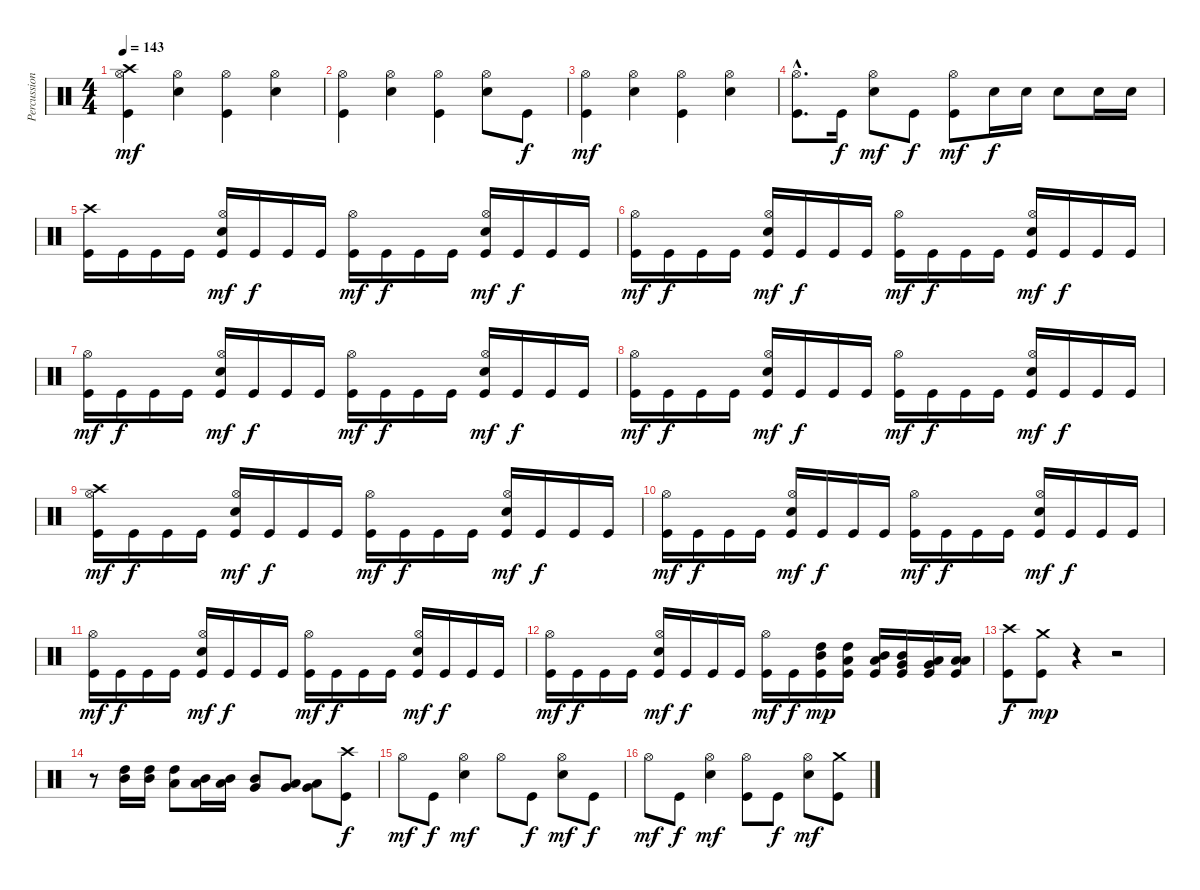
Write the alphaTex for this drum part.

\track ("Percussions" "Percussion") {instrument percussion}
\staff {score}
\articulation defaults
\ts (4 4)
\tempo 143
\clef neutral
\ks c
("Kick (hit)" "Hi-Hat (open)" "Crash high (hit)").4{dy mf} ("Electric Snare (hit)" "Hi-Hat (open)").4 ("Kick (hit)" "Hi-Hat (open)").4 ("Electric Snare (hit)" "Hi-Hat (open)").4 |
("Kick (hit)" "Hi-Hat (open)").4 ("Electric Snare (hit)" "Hi-Hat (open)").4 ("Kick (hit)" "Hi-Hat (open)").4 ("Electric Snare (hit)" "Hi-Hat (open)").8 "Kick (hit)".8{dy f} |
("Kick (hit)" "Hi-Hat (open)").4{dy mf} ("Electric Snare (hit)" "Hi-Hat (open)").4 ("Kick (hit)" "Hi-Hat (open)").4 ("Electric Snare (hit)" "Hi-Hat (open)").4 |
("Kick (hit)"{hac} "Hi-Hat (open)"{hac}).8{d} "Kick (hit)".16{dy f} ("Electric Snare (hit)" "Hi-Hat (open)").8{dy mf} "Kick (hit)".8{dy f} ("Kick (hit)" "Hi-Hat (open)").8{dy mf} "Electric Snare (hit)".16{dy f} "Electric Snare (hit)".16 "Electric Snare (hit)".8 "Electric Snare (hit)".16 "Electric Snare (hit)".16 |
("Kick (hit)" "Crash high (hit)").16 "Kick (hit)".16 "Kick (hit)".16 "Kick (hit)".16 ("Kick (hit)" "Electric Snare (hit)" "Hi-Hat (open)").16{dy mf} "Kick (hit)".16{dy f} "Kick (hit)".16 "Kick (hit)".16 ("Kick (hit)" "Hi-Hat (open)").16{dy mf} "Kick (hit)".16{dy f} "Kick (hit)".16 "Kick (hit)".16 ("Kick (hit)" "Electric Snare (hit)" "Hi-Hat (open)").16{dy mf} "Kick (hit)".16{dy f} "Kick (hit)".16 "Kick (hit)".16 |
("Kick (hit)" "Hi-Hat (open)").16{dy mf} "Kick (hit)".16{dy f} "Kick (hit)".16 "Kick (hit)".16 ("Kick (hit)" "Electric Snare (hit)" "Hi-Hat (open)").16{dy mf} "Kick (hit)".16{dy f} "Kick (hit)".16 "Kick (hit)".16 ("Kick (hit)" "Hi-Hat (open)").16{dy mf} "Kick (hit)".16{dy f} "Kick (hit)".16 "Kick (hit)".16 ("Kick (hit)" "Electric Snare (hit)" "Hi-Hat (open)").16{dy mf} "Kick (hit)".16{dy f} "Kick (hit)".16 "Kick (hit)".16 |
("Kick (hit)" "Hi-Hat (open)").16{dy mf} "Kick (hit)".16{dy f} "Kick (hit)".16 "Kick (hit)".16 ("Kick (hit)" "Electric Snare (hit)" "Hi-Hat (open)").16{dy mf} "Kick (hit)".16{dy f} "Kick (hit)".16 "Kick (hit)".16 ("Kick (hit)" "Hi-Hat (open)").16{dy mf} "Kick (hit)".16{dy f} "Kick (hit)".16 "Kick (hit)".16 ("Kick (hit)" "Electric Snare (hit)" "Hi-Hat (open)").16{dy mf} "Kick (hit)".16{dy f} "Kick (hit)".16 "Kick (hit)".16 |
("Kick (hit)" "Hi-Hat (open)").16{dy mf} "Kick (hit)".16{dy f} "Kick (hit)".16 "Kick (hit)".16 ("Kick (hit)" "Electric Snare (hit)" "Hi-Hat (open)").16{dy mf} "Kick (hit)".16{dy f} "Kick (hit)".16 "Kick (hit)".16 ("Kick (hit)" "Hi-Hat (open)").16{dy mf} "Kick (hit)".16{dy f} "Kick (hit)".16 "Kick (hit)".16 ("Kick (hit)" "Electric Snare (hit)" "Hi-Hat (open)").16{dy mf} "Kick (hit)".16{dy f} "Kick (hit)".16 "Kick (hit)".16 |
("Kick (hit)" "Hi-Hat (open)" "Crash high (hit)").16{dy mf} "Kick (hit)".16{dy f} "Kick (hit)".16 "Kick (hit)".16 ("Kick (hit)" "Electric Snare (hit)" "Hi-Hat (open)").16{dy mf} "Kick (hit)".16{dy f} "Kick (hit)".16 "Kick (hit)".16 ("Kick (hit)" "Hi-Hat (open)").16{dy mf} "Kick (hit)".16{dy f} "Kick (hit)".16 "Kick (hit)".16 ("Kick (hit)" "Electric Snare (hit)" "Hi-Hat (open)").16{dy mf} "Kick (hit)".16{dy f} "Kick (hit)".16 "Kick (hit)".16 |
("Kick (hit)" "Hi-Hat (open)").16{dy mf} "Kick (hit)".16{dy f} "Kick (hit)".16 "Kick (hit)".16 ("Kick (hit)" "Electric Snare (hit)" "Hi-Hat (open)").16{dy mf} "Kick (hit)".16{dy f} "Kick (hit)".16 "Kick (hit)".16 ("Kick (hit)" "Hi-Hat (open)").16{dy mf} "Kick (hit)".16{dy f} "Kick (hit)".16 "Kick (hit)".16 ("Kick (hit)" "Electric Snare (hit)" "Hi-Hat (open)").16{dy mf} "Kick (hit)".16{dy f} "Kick (hit)".16 "Kick (hit)".16 |
("Kick (hit)" "Hi-Hat (open)").16{dy mf} "Kick (hit)".16{dy f} "Kick (hit)".16 "Kick (hit)".16 ("Kick (hit)" "Electric Snare (hit)" "Hi-Hat (open)").16{dy mf} "Kick (hit)".16{dy f} "Kick (hit)".16 "Kick (hit)".16 ("Kick (hit)" "Hi-Hat (open)").16{dy mf} "Kick (hit)".16{dy f} "Kick (hit)".16 "Kick (hit)".16 ("Kick (hit)" "Electric Snare (hit)" "Hi-Hat (open)").16{dy mf} "Kick (hit)".16{dy f} "Kick (hit)".16 "Kick (hit)".16 |
("Kick (hit)" "Hi-Hat (open)").16{dy mf} "Kick (hit)".16{dy f} "Kick (hit)".16 "Kick (hit)".16 ("Kick (hit)" "Electric Snare (hit)" "Hi-Hat (open)").16{dy mf} "Kick (hit)".16{dy f} "Kick (hit)".16 "Kick (hit)".16 ("Kick (hit)" "Hi-Hat (open)").16{dy mf} "Kick (hit)".16{dy f} ("Kick (hit)" "Mid Tom (hit)" "High Tom (hit)").16{dy mp} ("Kick (hit)" "Low Tom (hit)" "High Tom (hit)").16 ("Kick (hit)" "Low Tom (hit)" "Mid Tom (hit)").16 ("Kick (hit)" "Very Low Tom (hit)" "Mid Tom (hit)").16 ("Kick (hit)" "Very Low Tom (hit)" "Low Tom (hit)").16 ("Kick (hit)" "Low Floor Tom (hit)" "Low Tom (hit)").16 |
("Kick (hit)" "Crash high (hit)").8{dy f} ("Kick (hit)" "Crash medium (hit)").8{dy mp} r.4 r.2 |
r.8 ("Mid Tom (hit)" "High Tom (hit)").16 ("Mid Tom (hit)" "High Tom (hit)").16 ("Low Tom (hit)" "High Tom (hit)").8 ("Low Tom (hit)" "Mid Tom (hit)").16 ("Low Tom (hit)" "Mid Tom (hit)").16 ("Very Low Tom (hit)" "Mid Tom (hit)").8 ("Very Low Tom (hit)" "Low Tom (hit)").8 ("Low Floor Tom (hit)" "Very Low Tom (hit)").8 ("Kick (hit)" "Crash high (hit)").8{dy f} |
"Hi-Hat (open)".8{dy mf} "Kick (hit)".8{dy f} ("Electric Snare (hit)" "Hi-Hat (open)").4{dy mf} "Hi-Hat (open)".8 "Kick (hit)".8{dy f} ("Electric Snare (hit)" "Hi-Hat (open)").8{dy mf} "Kick (hit)".8{dy f} |
"Hi-Hat (open)".8{dy mf} "Kick (hit)".8{dy f} ("Electric Snare (hit)" "Hi-Hat (open)").4{dy mf} ("Kick (hit)" "Hi-Hat (open)").8 "Kick (hit)".8{dy f} ("Electric Snare (hit)" "Hi-Hat (open)").8{dy mf} ("Kick (hit)" "Crash medium (hit)").8
